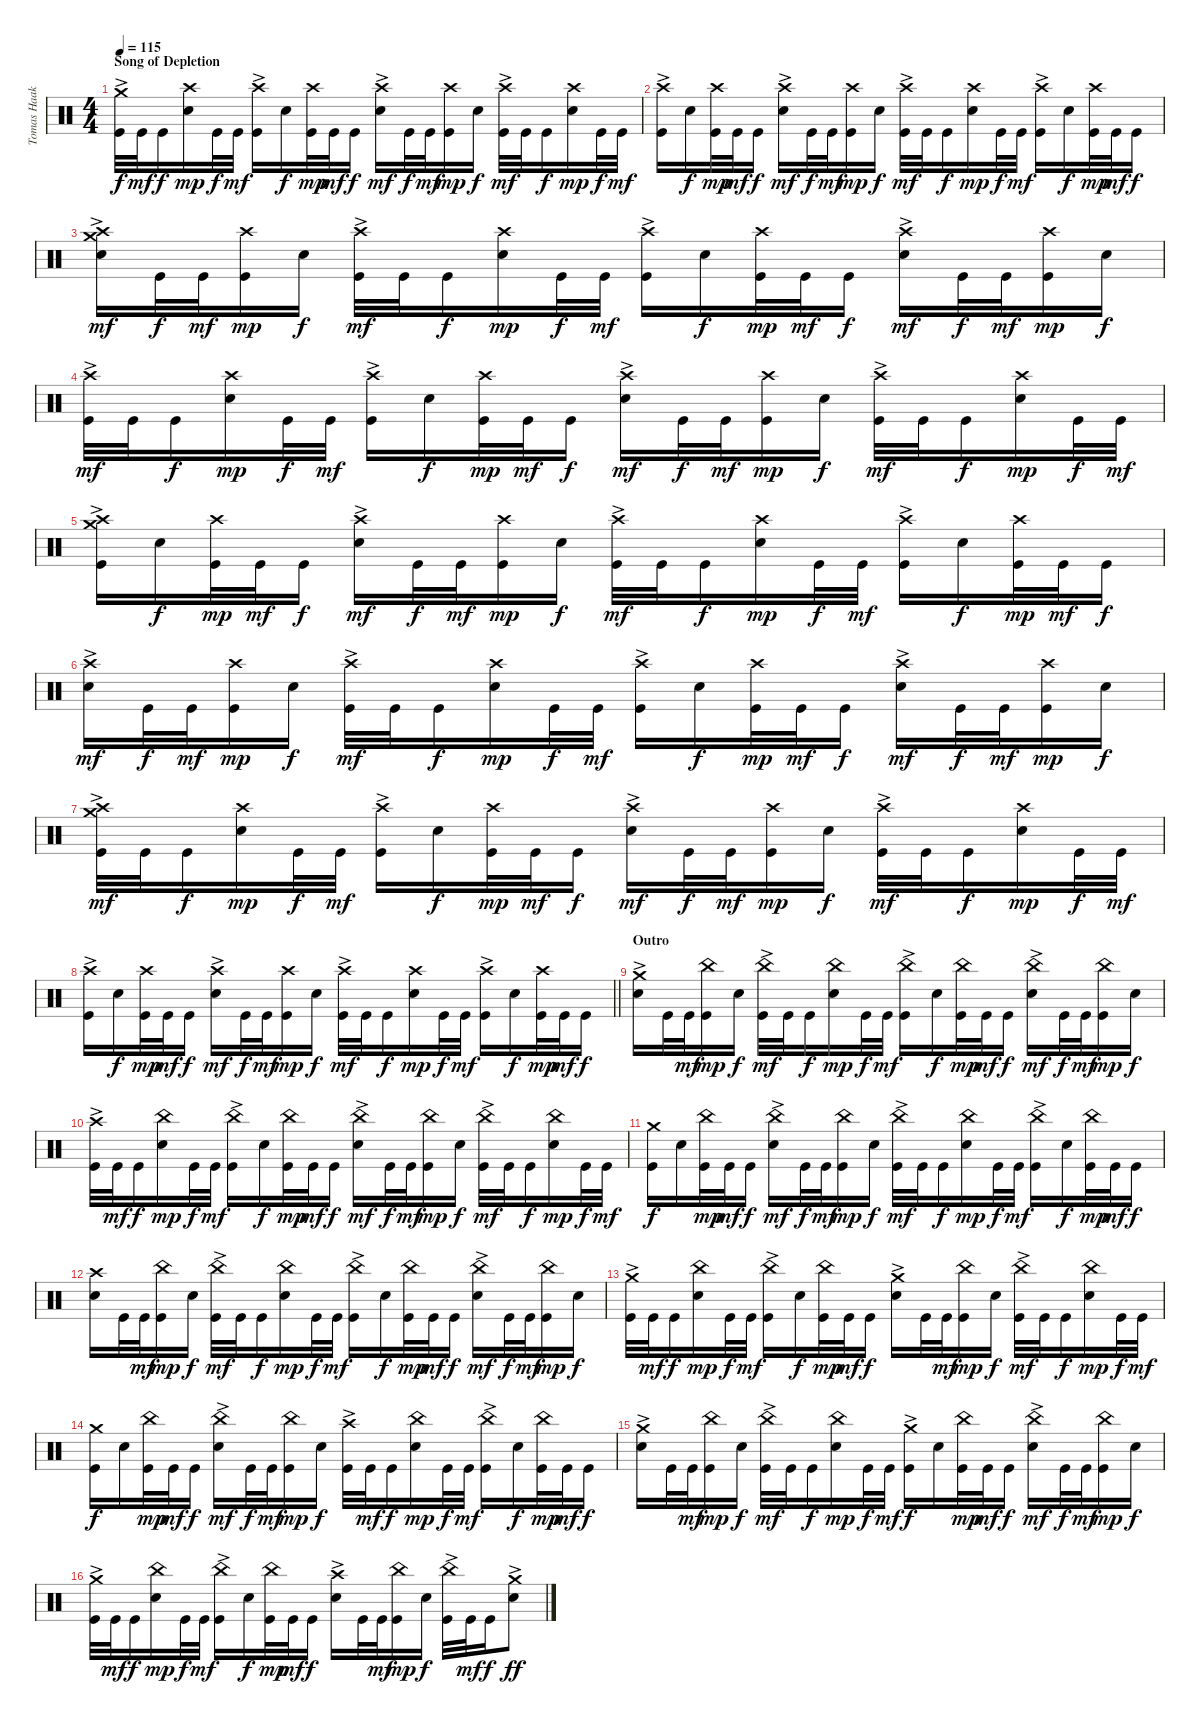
\track ("Tomas Haake (Drums)" "Tomas Haak") {instrument percussion}
\staff {score}
\articulation defaults
\ts (4 4)
\section ("" "Song of Depletion")
\tempo 115
\clef neutral
\ks c
("Crash medium (hit)"{ac} "Kick (hit)").32{dy f} "Kick (hit)".32{dy mf} "Kick (hit)".16{dy f} ("Crash high (hit)" "Electric Snare (hit)").16{dy mp} "Kick (hit)".32{dy f} "Kick (hit)".32{dy mf} ("Crash high (hit)"{ac} "Kick (hit)").16 "Electric Snare (hit)".16{dy f} ("Crash high (hit)" "Kick (hit)").32{dy mp} "Kick (hit)".32{dy mf} "Kick (hit)".16{dy f} ("Crash high (hit)"{ac} "Electric Snare (hit)").16{dy mf} "Kick (hit)".32{dy f} "Kick (hit)".32{dy mf} ("Crash high (hit)" "Kick (hit)").16{dy mp} "Electric Snare (hit)".16{dy f} ("Crash high (hit)"{ac} "Kick (hit)").32{dy mf} "Kick (hit)".32 "Kick (hit)".16{dy f} ("Crash high (hit)" "Electric Snare (hit)").16{dy mp} "Kick (hit)".32{dy f} "Kick (hit)".32{dy mf} |
("Crash high (hit)"{ac} "Kick (hit)").16 "Electric Snare (hit)".16{dy f} ("Crash high (hit)" "Kick (hit)").32{dy mp} "Kick (hit)".32{dy mf} "Kick (hit)".16{dy f} ("Crash high (hit)"{ac} "Electric Snare (hit)").16{dy mf} "Kick (hit)".32{dy f} "Kick (hit)".32{dy mf} ("Crash high (hit)" "Kick (hit)").16{dy mp} "Electric Snare (hit)".16{dy f} ("Crash high (hit)"{ac} "Kick (hit)").32{dy mf} "Kick (hit)".32 "Kick (hit)".16{dy f} ("Crash high (hit)" "Electric Snare (hit)").16{dy mp} "Kick (hit)".32{dy f} "Kick (hit)".32{dy mf} ("Crash high (hit)"{ac} "Kick (hit)").16 "Electric Snare (hit)".16{dy f} ("Crash high (hit)" "Kick (hit)").32{dy mp} "Kick (hit)".32{dy mf} "Kick (hit)".16{dy f} |
("Crash high (hit)"{ac} "Crash medium (hit)" "Electric Snare (hit)").16{dy mf} "Kick (hit)".32{dy f} "Kick (hit)".32{dy mf} ("Crash high (hit)" "Kick (hit)").16{dy mp} "Electric Snare (hit)".16{dy f} ("Crash high (hit)"{ac} "Kick (hit)").32{dy mf} "Kick (hit)".32 "Kick (hit)".16{dy f} ("Crash high (hit)" "Electric Snare (hit)").16{dy mp} "Kick (hit)".32{dy f} "Kick (hit)".32{dy mf} ("Crash high (hit)"{ac} "Kick (hit)").16 "Electric Snare (hit)".16{dy f} ("Crash high (hit)" "Kick (hit)").32{dy mp} "Kick (hit)".32{dy mf} "Kick (hit)".16{dy f} ("Crash high (hit)"{ac} "Electric Snare (hit)").16{dy mf} "Kick (hit)".32{dy f} "Kick (hit)".32{dy mf} ("Crash high (hit)" "Kick (hit)").16{dy mp} "Electric Snare (hit)".16{dy f} |
("Crash high (hit)"{ac} "Kick (hit)").32{dy mf} "Kick (hit)".32 "Kick (hit)".16{dy f} ("Crash high (hit)" "Electric Snare (hit)").16{dy mp} "Kick (hit)".32{dy f} "Kick (hit)".32{dy mf} ("Crash high (hit)"{ac} "Kick (hit)").16 "Electric Snare (hit)".16{dy f} ("Crash high (hit)" "Kick (hit)").32{dy mp} "Kick (hit)".32{dy mf} "Kick (hit)".16{dy f} ("Crash high (hit)"{ac} "Electric Snare (hit)").16{dy mf} "Kick (hit)".32{dy f} "Kick (hit)".32{dy mf} ("Crash high (hit)" "Kick (hit)").16{dy mp} "Electric Snare (hit)".16{dy f} ("Crash high (hit)"{ac} "Kick (hit)").32{dy mf} "Kick (hit)".32 "Kick (hit)".16{dy f} ("Crash high (hit)" "Electric Snare (hit)").16{dy mp} "Kick (hit)".32{dy f} "Kick (hit)".32{dy mf} |
("Crash high (hit)"{ac} "Crash medium (hit)" "Kick (hit)").16 "Electric Snare (hit)".16{dy f} ("Crash high (hit)" "Kick (hit)").32{dy mp} "Kick (hit)".32{dy mf} "Kick (hit)".16{dy f} ("Crash high (hit)"{ac} "Electric Snare (hit)").16{dy mf} "Kick (hit)".32{dy f} "Kick (hit)".32{dy mf} ("Crash high (hit)" "Kick (hit)").16{dy mp} "Electric Snare (hit)".16{dy f} ("Crash high (hit)"{ac} "Kick (hit)").32{dy mf} "Kick (hit)".32 "Kick (hit)".16{dy f} ("Crash high (hit)" "Electric Snare (hit)").16{dy mp} "Kick (hit)".32{dy f} "Kick (hit)".32{dy mf} ("Crash high (hit)"{ac} "Kick (hit)").16 "Electric Snare (hit)".16{dy f} ("Crash high (hit)" "Kick (hit)").32{dy mp} "Kick (hit)".32{dy mf} "Kick (hit)".16{dy f} |
("Crash high (hit)"{ac} "Electric Snare (hit)").16{dy mf} "Kick (hit)".32{dy f} "Kick (hit)".32{dy mf} ("Crash high (hit)" "Kick (hit)").16{dy mp} "Electric Snare (hit)".16{dy f} ("Crash high (hit)"{ac} "Kick (hit)").32{dy mf} "Kick (hit)".32 "Kick (hit)".16{dy f} ("Crash high (hit)" "Electric Snare (hit)").16{dy mp} "Kick (hit)".32{dy f} "Kick (hit)".32{dy mf} ("Crash high (hit)"{ac} "Kick (hit)").16 "Electric Snare (hit)".16{dy f} ("Crash high (hit)" "Kick (hit)").32{dy mp} "Kick (hit)".32{dy mf} "Kick (hit)".16{dy f} ("Crash high (hit)"{ac} "Electric Snare (hit)").16{dy mf} "Kick (hit)".32{dy f} "Kick (hit)".32{dy mf} ("Crash high (hit)" "Kick (hit)").16{dy mp} "Electric Snare (hit)".16{dy f} |
("Crash high (hit)"{ac} "Crash medium (hit)" "Kick (hit)").32{dy mf} "Kick (hit)".32 "Kick (hit)".16{dy f} ("Crash high (hit)" "Electric Snare (hit)").16{dy mp} "Kick (hit)".32{dy f} "Kick (hit)".32{dy mf} ("Crash high (hit)"{ac} "Kick (hit)").16 "Electric Snare (hit)".16{dy f} ("Crash high (hit)" "Kick (hit)").32{dy mp} "Kick (hit)".32{dy mf} "Kick (hit)".16{dy f} ("Crash high (hit)"{ac} "Electric Snare (hit)").16{dy mf} "Kick (hit)".32{dy f} "Kick (hit)".32{dy mf} ("Crash high (hit)" "Kick (hit)").16{dy mp} "Electric Snare (hit)".16{dy f} ("Crash high (hit)"{ac} "Kick (hit)").32{dy mf} "Kick (hit)".32 "Kick (hit)".16{dy f} ("Crash high (hit)" "Electric Snare (hit)").16{dy mp} "Kick (hit)".32{dy f} "Kick (hit)".32{dy mf} |
\barLineRight lightlight
("Crash high (hit)"{ac} "Kick (hit)").16 "Electric Snare (hit)".16{dy f} ("Crash high (hit)" "Kick (hit)").32{dy mp} "Kick (hit)".32{dy mf} "Kick (hit)".16{dy f} ("Crash high (hit)"{ac} "Electric Snare (hit)").16{dy mf} "Kick (hit)".32{dy f} "Kick (hit)".32{dy mf} ("Crash high (hit)" "Kick (hit)").16{dy mp} "Electric Snare (hit)".16{dy f} ("Crash high (hit)"{ac} "Kick (hit)").32{dy mf} "Kick (hit)".32 "Kick (hit)".16{dy f} ("Crash high (hit)" "Electric Snare (hit)").16{dy mp} "Kick (hit)".32{dy f} "Kick (hit)".32{dy mf} ("Crash high (hit)"{ac} "Kick (hit)").16 "Electric Snare (hit)".16{dy f} ("Crash high (hit)" "Kick (hit)").32{dy mp} "Kick (hit)".32{dy mf} "Kick (hit)".16{dy f} |
\section ("" "Outro")
("Crash medium (hit)"{ac} "Electric Snare (hit)").16 "Kick (hit)".32 "Kick (hit)".32{dy mf} ("China (hit)" "Kick (hit)").16{dy mp} "Electric Snare (hit)".16{dy f} ("China (hit)"{ac} "Kick (hit)").32{dy mf} "Kick (hit)".32 "Kick (hit)".16{dy f} ("China (hit)" "Electric Snare (hit)").16{dy mp} "Kick (hit)".32{dy f} "Kick (hit)".32{dy mf} ("China (hit)"{ac} "Kick (hit)").16 "Electric Snare (hit)".16{dy f} ("China (hit)" "Kick (hit)").32{dy mp} "Kick (hit)".32{dy mf} "Kick (hit)".16{dy f} ("China (hit)"{ac} "Electric Snare (hit)").16{dy mf} "Kick (hit)".32{dy f} "Kick (hit)".32{dy mf} ("China (hit)" "Kick (hit)").16{dy mp} "Electric Snare (hit)".16{dy f} |
("Crash high (hit)"{ac} "Kick (hit)").32 "Kick (hit)".32{dy mf} "Kick (hit)".16{dy f} ("China (hit)" "Electric Snare (hit)").16{dy mp} "Kick (hit)".32{dy f} "Kick (hit)".32{dy mf} ("China (hit)"{ac} "Kick (hit)").16 "Electric Snare (hit)".16{dy f} ("China (hit)" "Kick (hit)").32{dy mp} "Kick (hit)".32{dy mf} "Kick (hit)".16{dy f} ("China (hit)"{ac} "Electric Snare (hit)").16{dy mf} "Kick (hit)".32{dy f} "Kick (hit)".32{dy mf} ("China (hit)" "Kick (hit)").16{dy mp} "Electric Snare (hit)".16{dy f} ("China (hit)"{ac} "Kick (hit)").32{dy mf} "Kick (hit)".32 "Kick (hit)".16{dy f} ("China (hit)" "Electric Snare (hit)").16{dy mp} "Kick (hit)".32{dy f} "Kick (hit)".32{dy mf} |
("Crash medium (hit)" "Kick (hit)").16{dy f} "Electric Snare (hit)".16 ("China (hit)" "Kick (hit)").32{dy mp} "Kick (hit)".32{dy mf} "Kick (hit)".16{dy f} ("China (hit)"{ac} "Electric Snare (hit)").16{dy mf} "Kick (hit)".32{dy f} "Kick (hit)".32{dy mf} ("China (hit)" "Kick (hit)").16{dy mp} "Electric Snare (hit)".16{dy f} ("China (hit)"{ac} "Kick (hit)").32{dy mf} "Kick (hit)".32 "Kick (hit)".16{dy f} ("China (hit)" "Electric Snare (hit)").16{dy mp} "Kick (hit)".32{dy f} "Kick (hit)".32{dy mf} ("China (hit)"{ac} "Kick (hit)").16 "Electric Snare (hit)".16{dy f} ("China (hit)" "Kick (hit)").32{dy mp} "Kick (hit)".32{dy mf} "Kick (hit)".16{dy f} |
("Crash high (hit)" "Electric Snare (hit)").16 "Kick (hit)".32 "Kick (hit)".32{dy mf} ("China (hit)" "Kick (hit)").16{dy mp} "Electric Snare (hit)".16{dy f} ("China (hit)"{ac} "Kick (hit)").32{dy mf} "Kick (hit)".32 "Kick (hit)".16{dy f} ("China (hit)" "Electric Snare (hit)").16{dy mp} "Kick (hit)".32{dy f} "Kick (hit)".32{dy mf} ("China (hit)"{ac} "Kick (hit)").16 "Electric Snare (hit)".16{dy f} ("China (hit)" "Kick (hit)").32{dy mp} "Kick (hit)".32{dy mf} "Kick (hit)".16{dy f} ("China (hit)"{ac} "Electric Snare (hit)").16{dy mf} "Kick (hit)".32{dy f} "Kick (hit)".32{dy mf} ("China (hit)" "Kick (hit)").16{dy mp} "Electric Snare (hit)".16{dy f} |
("Crash medium (hit)"{ac} "Kick (hit)").32 "Kick (hit)".32{dy mf} "Kick (hit)".16{dy f} ("China (hit)" "Electric Snare (hit)").16{dy mp} "Kick (hit)".32{dy f} "Kick (hit)".32{dy mf} ("China (hit)"{ac} "Kick (hit)").16 "Electric Snare (hit)".16{dy f} ("China (hit)" "Kick (hit)").32{dy mp} "Kick (hit)".32{dy mf} "Kick (hit)".16{dy f} ("Crash medium (hit)"{ac} "Electric Snare (hit)").16 "Kick (hit)".32 "Kick (hit)".32{dy mf} ("China (hit)" "Kick (hit)").16{dy mp} "Electric Snare (hit)".16{dy f} ("China (hit)"{ac} "Kick (hit)").32{dy mf} "Kick (hit)".32 "Kick (hit)".16{dy f} ("China (hit)" "Electric Snare (hit)").16{dy mp} "Kick (hit)".32{dy f} "Kick (hit)".32{dy mf} |
("Crash medium (hit)" "Kick (hit)").16{dy f} "Electric Snare (hit)".16 ("China (hit)" "Kick (hit)").32{dy mp} "Kick (hit)".32{dy mf} "Kick (hit)".16{dy f} ("China (hit)"{ac} "Electric Snare (hit)").16{dy mf} "Kick (hit)".32{dy f} "Kick (hit)".32{dy mf} ("China (hit)" "Kick (hit)").16{dy mp} "Electric Snare (hit)".16{dy f} ("Crash high (hit)"{ac} "Kick (hit)").32 "Kick (hit)".32{dy mf} "Kick (hit)".16{dy f} ("China (hit)" "Electric Snare (hit)").16{dy mp} "Kick (hit)".32{dy f} "Kick (hit)".32{dy mf} ("China (hit)"{ac} "Kick (hit)").16 "Electric Snare (hit)".16{dy f} ("China (hit)" "Kick (hit)").32{dy mp} "Kick (hit)".32{dy mf} "Kick (hit)".16{dy f} |
("Crash medium (hit)"{ac} "Electric Snare (hit)").16 "Kick (hit)".32 "Kick (hit)".32{dy mf} ("China (hit)" "Kick (hit)").16{dy mp} "Electric Snare (hit)".16{dy f} ("China (hit)"{ac} "Kick (hit)").32{dy mf} "Kick (hit)".32 "Kick (hit)".16{dy f} ("China (hit)" "Electric Snare (hit)").16{dy mp} "Kick (hit)".32{dy f} "Kick (hit)".32{dy mf} ("Crash medium (hit)"{ac} "Kick (hit)").16{dy f} "Electric Snare (hit)".16 ("China (hit)" "Kick (hit)").32{dy mp} "Kick (hit)".32{dy mf} "Kick (hit)".16{dy f} ("China (hit)"{ac} "Electric Snare (hit)").16{dy mf} "Kick (hit)".32{dy f} "Kick (hit)".32{dy mf} ("China (hit)" "Kick (hit)").16{dy mp} "Electric Snare (hit)".16{dy f} |
("Crash medium (hit)"{ac} "Kick (hit)").32 "Kick (hit)".32{dy mf} "Kick (hit)".16{dy f} ("China (hit)" "Electric Snare (hit)").16{dy mp} "Kick (hit)".32{dy f} "Kick (hit)".32{dy mf} ("China (hit)"{ac} "Kick (hit)").16 "Electric Snare (hit)".16{dy f} ("China (hit)" "Kick (hit)").32{dy mp} "Kick (hit)".32{dy mf} "Kick (hit)".16{dy f} ("Crash high (hit)"{ac} "Electric Snare (hit)").16 "Kick (hit)".32 "Kick (hit)".32{dy mf} ("China (hit)" "Kick (hit)").16{dy mp} "Electric Snare (hit)".16{dy f} ("China (hit)"{ac} "Kick (hit)").32 "Kick (hit)".32{dy mf} "Kick (hit)".16{dy f} ("Crash medium (hit)"{ac} "Electric Snare (hit)"{ac}).8{dy ff}
